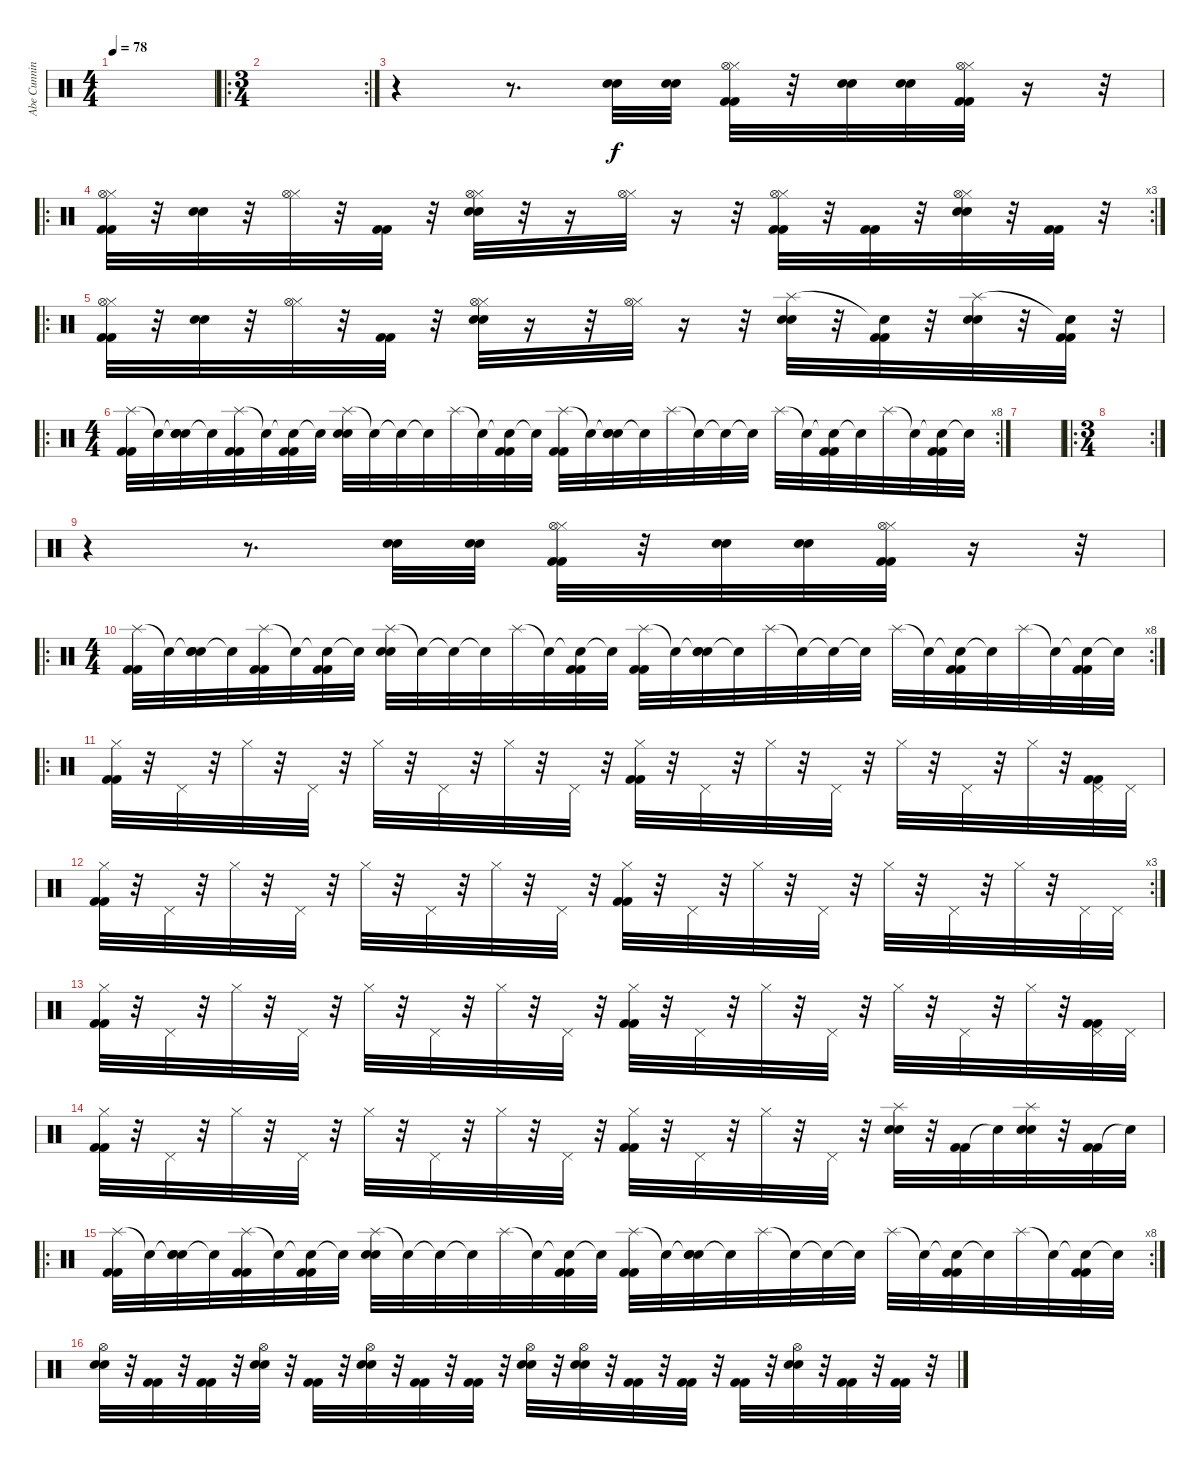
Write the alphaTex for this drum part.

\track ("Abe Cunningham" "Abe Cunnin") {instrument percussion}
\staff {score}
\articulation defaults
\ts (4 4)
\tempo 78
\clef neutral
\ks c
|
\ro
\rc 2
\ts (3 4)
|
r.4 r.8{d} ("Electric Snare (hit)" "Electric Snare (hit)").32 ("Electric Snare (hit)" "Electric Snare (hit)").32 ("Hi-Hat (closed)" "Kick (hit) 2" "Kick (hit) 2" "Hi-Hat (open)").32 r.32 ("Electric Snare (hit)" "Electric Snare (hit)").32 ("Electric Snare (hit)" "Electric Snare (hit)").32 ("Hi-Hat (closed)" "Kick (hit) 2" "Kick (hit) 2" "Hi-Hat (open)").32 r.16 r.32 |
\ro
\rc 3
("Hi-Hat (closed)" "Kick (hit) 2" "Kick (hit) 2" "Hi-Hat (open)").32 r.32 ("Electric Snare (hit)" "Electric Snare (hit)").32 r.32 ("Hi-Hat (closed)" "Hi-Hat (open)").32 r.32 ("Kick (hit) 2" "Kick (hit) 2").32 r.32 ("Hi-Hat (closed)" "Electric Snare (hit)" "Electric Snare (hit)" "Hi-Hat (open)").32 r.32 r.16 ("Hi-Hat (closed)" "Hi-Hat (open)").32 r.16 r.32 ("Hi-Hat (closed)" "Kick (hit) 2" "Kick (hit) 2" "Hi-Hat (open)").32 r.32 ("Kick (hit) 2" "Kick (hit) 2").32 r.32 ("Hi-Hat (closed)" "Electric Snare (hit)" "Electric Snare (hit)" "Hi-Hat (open)").32 r.32 ("Kick (hit) 2" "Kick (hit) 2").32 r.32 |
\ro
("Hi-Hat (closed)" "Kick (hit) 2" "Kick (hit) 2" "Hi-Hat (open)").32 r.32 ("Electric Snare (hit)" "Electric Snare (hit)").32 r.32 ("Hi-Hat (closed)" "Hi-Hat (open)").32 r.32 ("Kick (hit) 2" "Kick (hit) 2").32 r.32 ("Hi-Hat (closed)" "Electric Snare (hit)" "Electric Snare (hit)" "Hi-Hat (open)").32 r.16 r.32 ("Hi-Hat (closed)" "Hi-Hat (open)").32 r.16 r.32 ("Splash (hit)" "Electric Snare (hit)" "Electric Snare (hit)").32 r.32 ("Snare (hit)"{t} "Kick (hit) 2" "Kick (hit) 2").32 r.32 ("Splash (hit)" "Electric Snare (hit)" "Electric Snare (hit)").32 r.32 ("Snare (hit)"{t} "Kick (hit) 2" "Kick (hit) 2").32 r.32 |
\ro
\rc 8
\ts (4 4)
("Splash (hit)" "Kick (hit) 2" "Kick (hit) 2").32 "Snare (hit)"{t}.32 ("Snare (hit)"{t} "Electric Snare (hit)" "Electric Snare (hit)").32 "Snare (hit)"{t}.32 ("Splash (hit)" "Kick (hit) 2" "Kick (hit) 2").32 "Snare (hit)"{t}.32 ("Snare (hit)"{t} "Kick (hit) 2" "Kick (hit) 2").32 "Snare (hit)"{t}.32 ("Splash (hit)" "Electric Snare (hit)" "Electric Snare (hit)").32 "Snare (hit)"{t}.32 "Snare (hit)"{t}.32 "Snare (hit)"{t}.32 "Splash (hit)".32 "Snare (hit)"{t}.32 ("Snare (hit)"{t} "Kick (hit) 2" "Kick (hit) 2").32 "Snare (hit)"{t}.32 ("Splash (hit)" "Kick (hit) 2" "Kick (hit) 2").32 "Snare (hit)"{t}.32 ("Snare (hit)"{t} "Electric Snare (hit)" "Electric Snare (hit)").32 "Snare (hit)"{t}.32 "Splash (hit)".32 "Snare (hit)"{t}.32 "Snare (hit)"{t}.32 "Snare (hit)"{t}.32 "Splash (hit)".32 "Snare (hit)"{t}.32 ("Snare (hit)"{t} "Kick (hit) 2" "Kick (hit) 2").32 "Snare (hit)"{t}.32 "Splash (hit)".32 "Snare (hit)"{t}.32 ("Snare (hit)"{t} "Kick (hit) 2" "Kick (hit) 2").32 "Snare (hit)"{t}.32 |
|
\ro
\rc 2
\ts (3 4)
|
r.4 r.8{d} ("Electric Snare (hit)" "Electric Snare (hit)").32 ("Electric Snare (hit)" "Electric Snare (hit)").32 ("Hi-Hat (closed)" "Kick (hit) 2" "Kick (hit) 2" "Hi-Hat (open)").32 r.32 ("Electric Snare (hit)" "Electric Snare (hit)").32 ("Electric Snare (hit)" "Electric Snare (hit)").32 ("Hi-Hat (closed)" "Kick (hit) 2" "Kick (hit) 2" "Hi-Hat (open)").32 r.16 r.32 |
\ro
\rc 8
\ts (4 4)
("Splash (hit)" "Kick (hit) 2" "Kick (hit) 2").32 "Snare (hit)"{t}.32 ("Snare (hit)"{t} "Electric Snare (hit)" "Electric Snare (hit)").32 "Snare (hit)"{t}.32 ("Splash (hit)" "Kick (hit) 2" "Kick (hit) 2").32 "Snare (hit)"{t}.32 ("Snare (hit)"{t} "Kick (hit) 2" "Kick (hit) 2").32 "Snare (hit)"{t}.32 ("Splash (hit)" "Electric Snare (hit)" "Electric Snare (hit)").32 "Snare (hit)"{t}.32 "Snare (hit)"{t}.32 "Snare (hit)"{t}.32 "Splash (hit)".32 "Snare (hit)"{t}.32 ("Snare (hit)"{t} "Kick (hit) 2" "Kick (hit) 2").32 "Snare (hit)"{t}.32 ("Splash (hit)" "Kick (hit) 2" "Kick (hit) 2").32 "Snare (hit)"{t}.32 ("Snare (hit)"{t} "Electric Snare (hit)" "Electric Snare (hit)").32 "Snare (hit)"{t}.32 "Splash (hit)".32 "Snare (hit)"{t}.32 "Snare (hit)"{t}.32 "Snare (hit)"{t}.32 "Splash (hit)".32 "Snare (hit)"{t}.32 ("Snare (hit)"{t} "Kick (hit) 2" "Kick (hit) 2").32 "Snare (hit)"{t}.32 "Splash (hit)".32 "Snare (hit)"{t}.32 ("Snare (hit)"{t} "Kick (hit) 2" "Kick (hit) 2").32 "Snare (hit)"{t}.32 |
\ro
("Hi-Hat (closed)" "Kick (hit) 2" "Kick (hit) 2").32 r.32 "Pedal Hi-Hat (hit)".32 r.32 "Hi-Hat (closed)".32 r.32 "Pedal Hi-Hat (hit)".32 r.32 "Hi-Hat (closed)".32 r.32 "Pedal Hi-Hat (hit)".32 r.32 "Hi-Hat (closed)".32 r.32 "Pedal Hi-Hat (hit)".32 r.32 ("Hi-Hat (closed)" "Kick (hit) 2" "Kick (hit) 2").32 r.32 "Pedal Hi-Hat (hit)".32 r.32 "Hi-Hat (closed)".32 r.32 "Pedal Hi-Hat (hit)".32 r.32 "Hi-Hat (closed)".32 r.32 "Pedal Hi-Hat (hit)".32 r.32 "Hi-Hat (closed)".32 r.32 ("Pedal Hi-Hat (hit)" "Kick (hit) 2" "Kick (hit) 2").32 "Pedal Hi-Hat (hit)".32 |
\rc 3
("Hi-Hat (closed)" "Kick (hit) 2" "Kick (hit) 2").32 r.32 "Pedal Hi-Hat (hit)".32 r.32 "Hi-Hat (closed)".32 r.32 "Pedal Hi-Hat (hit)".32 r.32 "Hi-Hat (closed)".32 r.32 "Pedal Hi-Hat (hit)".32 r.32 "Hi-Hat (closed)".32 r.32 "Pedal Hi-Hat (hit)".32 r.32 ("Hi-Hat (closed)" "Kick (hit) 2" "Kick (hit) 2").32 r.32 "Pedal Hi-Hat (hit)".32 r.32 "Hi-Hat (closed)".32 r.32 "Pedal Hi-Hat (hit)".32 r.32 "Hi-Hat (closed)".32 r.32 "Pedal Hi-Hat (hit)".32 r.32 "Hi-Hat (closed)".32 r.32 "Pedal Hi-Hat (hit)".32 "Pedal Hi-Hat (hit)".32 |
("Hi-Hat (closed)" "Kick (hit) 2" "Kick (hit) 2").32 r.32 "Pedal Hi-Hat (hit)".32 r.32 "Hi-Hat (closed)".32 r.32 "Pedal Hi-Hat (hit)".32 r.32 "Hi-Hat (closed)".32 r.32 "Pedal Hi-Hat (hit)".32 r.32 "Hi-Hat (closed)".32 r.32 "Pedal Hi-Hat (hit)".32 r.32 ("Hi-Hat (closed)" "Kick (hit) 2" "Kick (hit) 2").32 r.32 "Pedal Hi-Hat (hit)".32 r.32 "Hi-Hat (closed)".32 r.32 "Pedal Hi-Hat (hit)".32 r.32 "Hi-Hat (closed)".32 r.32 "Pedal Hi-Hat (hit)".32 r.32 "Hi-Hat (closed)".32 r.32 ("Pedal Hi-Hat (hit)" "Kick (hit) 2" "Kick (hit) 2").32 "Pedal Hi-Hat (hit)".32 |
("Hi-Hat (closed)" "Kick (hit) 2" "Kick (hit) 2").32 r.32 "Pedal Hi-Hat (hit)".32 r.32 "Hi-Hat (closed)".32 r.32 "Pedal Hi-Hat (hit)".32 r.32 "Hi-Hat (closed)".32 r.32 "Pedal Hi-Hat (hit)".32 r.32 "Hi-Hat (closed)".32 r.32 "Pedal Hi-Hat (hit)".32 r.32 ("Hi-Hat (closed)" "Kick (hit) 2" "Kick (hit) 2").32 r.32 "Pedal Hi-Hat (hit)".32 r.32 "Hi-Hat (closed)".32 r.32 "Pedal Hi-Hat (hit)".32 r.32 ("Splash (hit)" "Electric Snare (hit)" "Electric Snare (hit)").32 r.32 ("Kick (hit) 2" "Kick (hit) 2").32 "Snare (hit)"{t}.32 ("Splash (hit)" "Electric Snare (hit)" "Electric Snare (hit)").32 r.32 ("Kick (hit) 2" "Kick (hit) 2").32 "Snare (hit)"{t}.32 |
\ro
\rc 8
("Splash (hit)" "Kick (hit) 2" "Kick (hit) 2").32 "Snare (hit)"{t}.32 ("Snare (hit)"{t} "Electric Snare (hit)" "Electric Snare (hit)").32 "Snare (hit)"{t}.32 ("Splash (hit)" "Kick (hit) 2" "Kick (hit) 2").32 "Snare (hit)"{t}.32 ("Snare (hit)"{t} "Kick (hit) 2" "Kick (hit) 2").32 "Snare (hit)"{t}.32 ("Splash (hit)" "Electric Snare (hit)" "Electric Snare (hit)").32 "Snare (hit)"{t}.32 "Snare (hit)"{t}.32 "Snare (hit)"{t}.32 "Splash (hit)".32 "Snare (hit)"{t}.32 ("Snare (hit)"{t} "Kick (hit) 2" "Kick (hit) 2").32 "Snare (hit)"{t}.32 ("Splash (hit)" "Kick (hit) 2" "Kick (hit) 2").32 "Snare (hit)"{t}.32 ("Snare (hit)"{t} "Electric Snare (hit)" "Electric Snare (hit)").32 "Snare (hit)"{t}.32 "Splash (hit)".32 "Snare (hit)"{t}.32 "Snare (hit)"{t}.32 "Snare (hit)"{t}.32 "Splash (hit)".32 "Snare (hit)"{t}.32 ("Snare (hit)"{t} "Kick (hit) 2" "Kick (hit) 2").32 "Snare (hit)"{t}.32 "Splash (hit)".32 "Snare (hit)"{t}.32 ("Snare (hit)"{t} "Kick (hit) 2" "Kick (hit) 2").32 "Snare (hit)"{t}.32 |
("Hi-Hat (open)" "Electric Snare (hit)" "Electric Snare (hit)").32 r.32 ("Kick (hit) 2" "Kick (hit) 2").32 r.32 ("Kick (hit) 2" "Kick (hit) 2").32 r.32 ("Hi-Hat (open)" "Electric Snare (hit)" "Electric Snare (hit)").32 r.32 ("Kick (hit) 2" "Kick (hit) 2").32 r.32 ("Hi-Hat (open)" "Electric Snare (hit)" "Electric Snare (hit)").32 r.32 ("Kick (hit) 2" "Kick (hit) 2").32 r.32 ("Kick (hit) 2" "Kick (hit) 2").32 r.32 ("Hi-Hat (open)" "Electric Snare (hit)" "Electric Snare (hit)").32 r.32 ("Hi-Hat (open)" "Electric Snare (hit)" "Electric Snare (hit)").32 r.32 ("Kick (hit) 2" "Kick (hit) 2").32 r.32 ("Kick (hit) 2" "Kick (hit) 2").32 r.32 ("Kick (hit) 2" "Kick (hit) 2").32 r.32 ("Hi-Hat (open)" "Electric Snare (hit)" "Electric Snare (hit)").32 r.32 ("Kick (hit) 2" "Kick (hit) 2").32 r.32 ("Kick (hit) 2" "Kick (hit) 2").32 r.32
